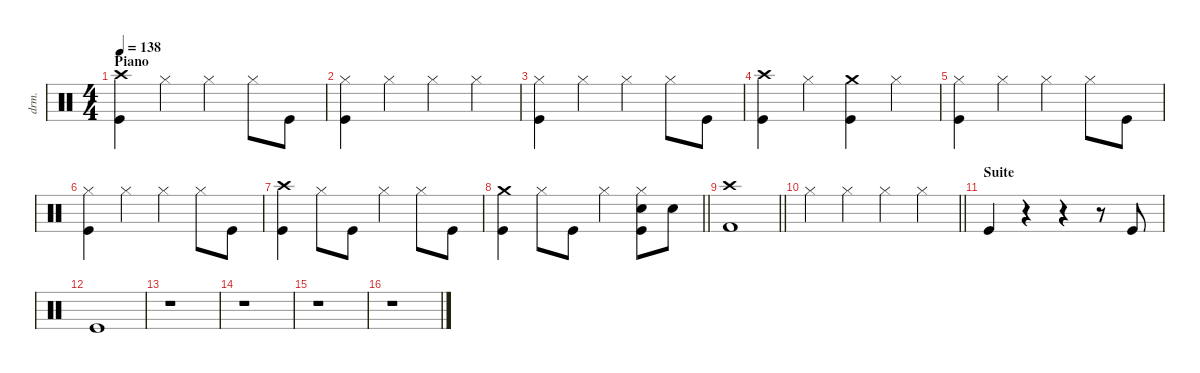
\defaultSystemsLayout 4
\hideDynamics
\bracketExtendMode nobrackets
\track ("Percussions" "drm.") {instrument percussion}
\staff {score}
\articulation defaults
\ts (4 4)
\section ("" "Piano")
\tempo 138
\clef neutral
\ks aminor
("Crash high (hit)" "Kick (hit)").4{dy f beam Down} "Hi-Hat (closed)".4{beam Down} "Hi-Hat (closed)".4{beam Down} "Hi-Hat (closed)".8{beam Down} "Kick (hit)".8{beam Down} |
("Hi-Hat (closed)" "Kick (hit)").4{beam Down} "Hi-Hat (closed)".4{beam Down} "Hi-Hat (closed)".4{beam Down} "Hi-Hat (closed)".4{beam Down} |
("Hi-Hat (closed)" "Kick (hit)").4{beam Down} "Hi-Hat (closed)".4{beam Down} "Hi-Hat (closed)".4{beam Down} "Hi-Hat (closed)".8{beam Down} "Kick (hit)".8{beam Down} |
("Crash high (hit)" "Kick (hit)").4{beam Down} "Hi-Hat (closed)".4{beam Down} ("Crash medium (hit)" "Kick (hit)").4{beam Down} "Hi-Hat (closed)".4{beam Down} |
("Hi-Hat (closed)" "Kick (hit)").4{beam Down} "Hi-Hat (closed)".4{beam Down} "Hi-Hat (closed)".4{beam Down} "Hi-Hat (closed)".8{beam Down} "Kick (hit)".8{beam Down} |
("Hi-Hat (closed)" "Kick (hit)").4{beam Down} "Hi-Hat (closed)".4{beam Down} "Hi-Hat (closed)".4{beam Down} "Hi-Hat (closed)".8{beam Down} "Kick (hit)".8{beam Down} |
("Crash high (hit)" "Kick (hit)").4{beam Down} "Hi-Hat (closed)".8{beam Down} "Kick (hit)".8{beam Down} "Hi-Hat (closed)".4{beam Down} "Hi-Hat (closed)".8{beam Down} "Kick (hit)".8{beam Down} |
\barLineRight lightlight
("Crash medium (hit)" "Kick (hit)").4{beam Down} "Hi-Hat (closed)".8{beam Down} "Kick (hit)".8{beam Down} "Hi-Hat (closed)".4{beam Down} ("Hi-Hat (closed)" "Snare (hit) 2" "Kick (hit)").8{beam Down} "Snare (hit) 2".8{beam Down} |
\barLineRight lightlight
("Crash high (hit)" "Kick (hit) 2").1{beam Down} |
\barLineRight lightlight "Hi-Hat (closed)".4{beam Down} "Hi-Hat (closed)".4{beam Down} "Hi-Hat (closed)".4{beam Down} "Hi-Hat (closed)".4{beam Down}
|
\section ("" "Suite")
"Kick (hit)".4{beam Up} r.4{beam Up} r.4{beam Up} r.8{beam Up} "Kick (hit)".8{beam Up} |
"Kick (hit)".1{beam Up} |
r.1{beam Down} |
r.1{beam Down} |
r.1{beam Down} |
r.1{beam Down}
